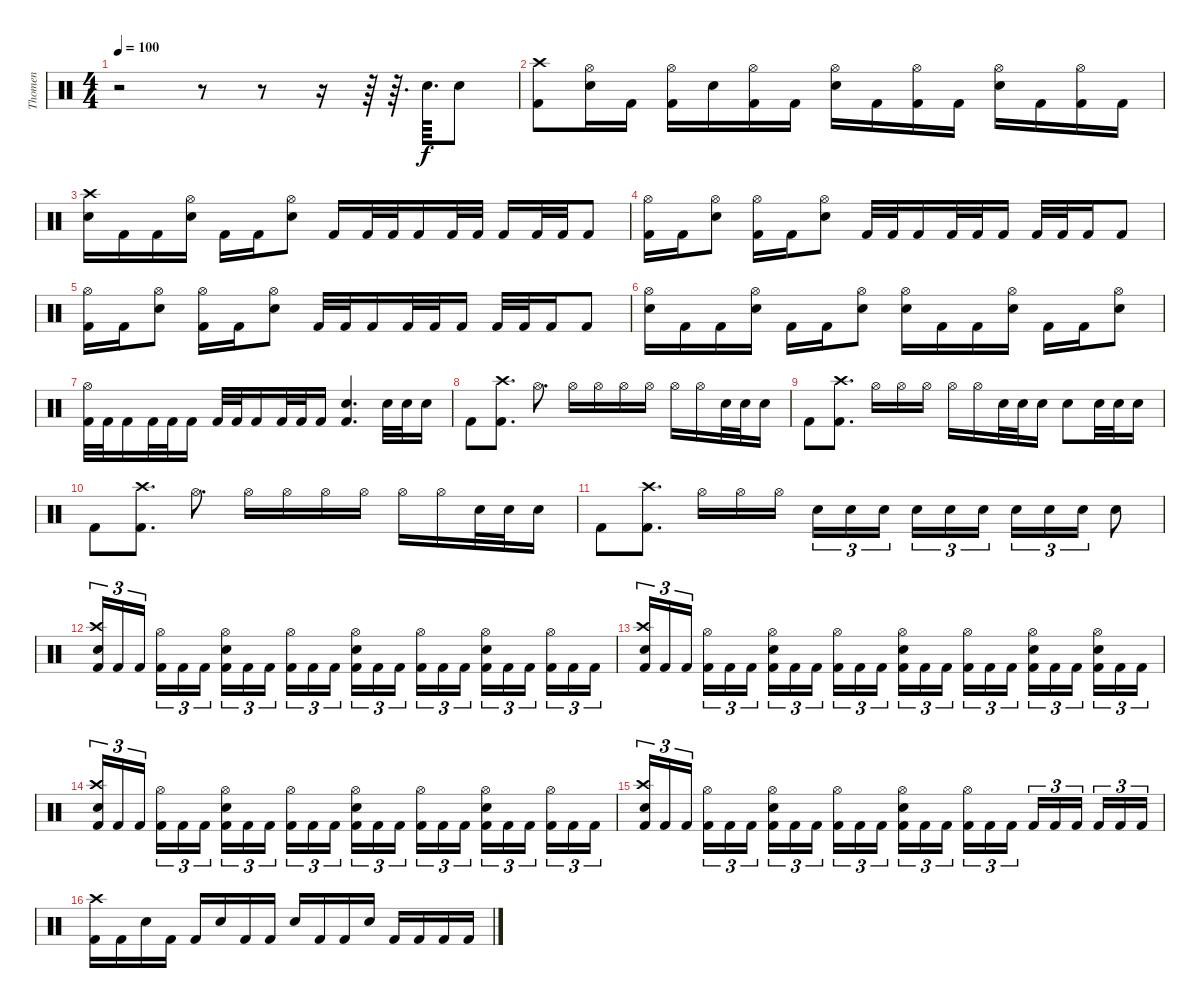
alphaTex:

\track ("Thomen" "Thomen") {instrument percussion}
\staff {score}
\articulation defaults
\ts (4 4)
\tempo 100
\clef neutral
\ks c
r.2{dy f} r.8 r.8 r.16 r.64 r.64{d} "Snare (hit) 2".64{d} "Snare (hit) 2".8 |
("Crash high (hit)" "Kick (hit) 2").8 ("Hi-Hat (open)" "Snare (hit) 2").16 "Kick (hit) 2".16 ("Hi-Hat (open)" "Kick (hit) 2").16 "Snare (hit) 2".16 ("Hi-Hat (open)" "Kick (hit) 2").16 "Kick (hit) 2".16 ("Hi-Hat (open)" "Snare (hit) 2").16 "Kick (hit) 2".16 ("Hi-Hat (open)" "Kick (hit) 2").16 "Kick (hit) 2".16 ("Hi-Hat (open)" "Snare (hit) 2").16 "Kick (hit) 2".16 ("Hi-Hat (open)" "Kick (hit) 2").16 "Kick (hit) 2".16 |
("Crash high (hit)" "Snare (hit) 2").16 "Kick (hit) 2".16 "Kick (hit) 2".16 ("Hi-Hat (open)" "Snare (hit) 2").16 "Kick (hit) 2".16 "Kick (hit) 2".16 ("Hi-Hat (open)" "Snare (hit) 2").8 "Kick (hit) 2".16 "Kick (hit) 2".32 "Kick (hit) 2".32 "Kick (hit) 2".16 "Kick (hit) 2".32 "Kick (hit) 2".32 "Kick (hit) 2".16 "Kick (hit) 2".32 "Kick (hit) 2".32 "Kick (hit) 2".8 |
("Hi-Hat (open)" "Kick (hit) 2").16 "Kick (hit) 2".16 ("Hi-Hat (open)" "Snare (hit) 2").8 ("Hi-Hat (open)" "Kick (hit) 2").16 "Kick (hit) 2".16 ("Hi-Hat (open)" "Snare (hit) 2").8 "Kick (hit) 2".32 "Kick (hit) 2".32 "Kick (hit) 2".16 "Kick (hit) 2".32 "Kick (hit) 2".32 "Kick (hit) 2".16 "Kick (hit) 2".32 "Kick (hit) 2".32 "Kick (hit) 2".16 "Kick (hit) 2".8 |
("Hi-Hat (open)" "Kick (hit) 2").16 "Kick (hit) 2".16 ("Hi-Hat (open)" "Snare (hit) 2").8 ("Hi-Hat (open)" "Kick (hit) 2").16 "Kick (hit) 2".16 ("Hi-Hat (open)" "Snare (hit) 2").8 "Kick (hit) 2".32 "Kick (hit) 2".32 "Kick (hit) 2".16 "Kick (hit) 2".32 "Kick (hit) 2".32 "Kick (hit) 2".16 "Kick (hit) 2".32 "Kick (hit) 2".32 "Kick (hit) 2".16 "Kick (hit) 2".8 |
("Hi-Hat (open)" "Snare (hit) 2").16 "Kick (hit) 2".16 "Kick (hit) 2".16 ("Hi-Hat (open)" "Snare (hit) 2").16 "Kick (hit) 2".16 "Kick (hit) 2".16 ("Hi-Hat (open)" "Snare (hit) 2").8 ("Hi-Hat (open)" "Snare (hit) 2").16 "Kick (hit) 2".16 "Kick (hit) 2".16 ("Hi-Hat (open)" "Snare (hit) 2").16 "Kick (hit) 2".16 "Kick (hit) 2".16 ("Hi-Hat (open)" "Snare (hit) 2").8 |
("Hi-Hat (open)" "Kick (hit) 2").32 "Kick (hit) 2".32 "Kick (hit) 2".16 "Kick (hit) 2".32 "Kick (hit) 2".32 "Kick (hit) 2".16 "Kick (hit) 2".32 "Kick (hit) 2".32 "Kick (hit) 2".16 "Kick (hit) 2".32 "Kick (hit) 2".32 "Kick (hit) 2".16 ("Snare (hit) 2" "Kick (hit) 2").4{d} "Snare (hit) 2".32 "Snare (hit) 2".32 "Snare (hit) 2".16 |
"Kick (hit) 2".8 ("Crash high (hit)" "Kick (hit) 2").8{d} "Hi-Hat (open)".8{d} "Hi-Hat (open)".16 "Hi-Hat (open)".16 "Hi-Hat (open)".16 "Hi-Hat (open)".16 "Hi-Hat (open)".16 "Hi-Hat (open)".16 "Snare (hit) 2".32 "Snare (hit) 2".32 "Snare (hit) 2".16 |
"Kick (hit) 2".8 ("Crash high (hit)" "Kick (hit) 2").8{d} "Hi-Hat (open)".16 "Hi-Hat (open)".16 "Hi-Hat (open)".16 "Hi-Hat (open)".16 "Hi-Hat (open)".16 "Snare (hit) 2".32 "Snare (hit) 2".32 "Snare (hit) 2".16 "Snare (hit) 2".8 "Snare (hit) 2".32 "Snare (hit) 2".32 "Snare (hit) 2".16 |
"Kick (hit) 2".8 ("Crash high (hit)" "Kick (hit) 2").8{d} "Hi-Hat (open)".8{d} "Hi-Hat (open)".16 "Hi-Hat (open)".16 "Hi-Hat (open)".16 "Hi-Hat (open)".16 "Hi-Hat (open)".16 "Hi-Hat (open)".16 "Snare (hit) 2".32 "Snare (hit) 2".32 "Snare (hit) 2".16 |
"Kick (hit) 2".8 ("Crash high (hit)" "Kick (hit) 2").8{d} "Hi-Hat (open)".16 "Hi-Hat (open)".16 "Hi-Hat (open)".16 "Snare (hit) 2".16{tu (3 2)} "Snare (hit) 2".16{tu (3 2)} "Snare (hit) 2".16{tu (3 2) beam splitsecondary} "Snare (hit) 2".16{tu (3 2)} "Snare (hit) 2".16{tu (3 2)} "Snare (hit) 2".16{tu (3 2)} "Snare (hit) 2".16{tu (3 2)} "Snare (hit) 2".16{tu (3 2)} "Snare (hit) 2".16{tu (3 2)} "Snare (hit) 2".8 |
("Crash high (hit)" "Snare (hit) 2" "Kick (hit) 2").16{tu (3 2)} "Kick (hit) 2".16{tu (3 2)} "Kick (hit) 2".16{tu (3 2) beam splitsecondary} ("Hi-Hat (open)" "Kick (hit) 2").16{tu (3 2)} "Kick (hit) 2".16{tu (3 2)} "Kick (hit) 2".16{tu (3 2)} ("Hi-Hat (open)" "Snare (hit) 2" "Kick (hit) 2").16{tu (3 2)} "Kick (hit) 2".16{tu (3 2)} "Kick (hit) 2".16{tu (3 2) beam splitsecondary} ("Hi-Hat (open)" "Kick (hit) 2").16{tu (3 2)} "Kick (hit) 2".16{tu (3 2)} "Kick (hit) 2".16{tu (3 2)} ("Hi-Hat (open)" "Snare (hit) 2" "Kick (hit) 2").16{tu (3 2)} "Kick (hit) 2".16{tu (3 2)} "Kick (hit) 2".16{tu (3 2) beam splitsecondary} ("Hi-Hat (open)" "Kick (hit) 2").16{tu (3 2)} "Kick (hit) 2".16{tu (3 2)} "Kick (hit) 2".16{tu (3 2)} ("Hi-Hat (open)" "Snare (hit) 2" "Kick (hit) 2").16{tu (3 2)} "Kick (hit) 2".16{tu (3 2)} "Kick (hit) 2".16{tu (3 2) beam splitsecondary} ("Hi-Hat (open)" "Kick (hit) 2").16{tu (3 2)} "Kick (hit) 2".16{tu (3 2)} "Kick (hit) 2".16{tu (3 2)} |
("Crash high (hit)" "Snare (hit) 2" "Kick (hit) 2").16{tu (3 2)} "Kick (hit) 2".16{tu (3 2)} "Kick (hit) 2".16{tu (3 2) beam splitsecondary} ("Hi-Hat (open)" "Kick (hit) 2").16{tu (3 2)} "Kick (hit) 2".16{tu (3 2)} "Kick (hit) 2".16{tu (3 2)} ("Hi-Hat (open)" "Snare (hit) 2" "Kick (hit) 2").16{tu (3 2)} "Kick (hit) 2".16{tu (3 2)} "Kick (hit) 2".16{tu (3 2) beam splitsecondary} ("Hi-Hat (open)" "Kick (hit) 2").16{tu (3 2)} "Kick (hit) 2".16{tu (3 2)} "Kick (hit) 2".16{tu (3 2)} ("Hi-Hat (open)" "Snare (hit) 2" "Kick (hit) 2").16{tu (3 2)} "Kick (hit) 2".16{tu (3 2)} "Kick (hit) 2".16{tu (3 2) beam splitsecondary} ("Hi-Hat (open)" "Kick (hit) 2").16{tu (3 2)} "Kick (hit) 2".16{tu (3 2)} "Kick (hit) 2".16{tu (3 2)} ("Hi-Hat (open)" "Snare (hit) 2" "Kick (hit) 2").16{tu (3 2)} "Kick (hit) 2".16{tu (3 2)} "Kick (hit) 2".16{tu (3 2) beam splitsecondary} ("Hi-Hat (open)" "Snare (hit) 2" "Kick (hit) 2").16{tu (3 2)} "Kick (hit) 2".16{tu (3 2)} "Kick (hit) 2".16{tu (3 2)} |
("Crash high (hit)" "Snare (hit) 2" "Kick (hit) 2").16{tu (3 2)} "Kick (hit) 2".16{tu (3 2)} "Kick (hit) 2".16{tu (3 2) beam splitsecondary} ("Hi-Hat (open)" "Kick (hit) 2").16{tu (3 2)} "Kick (hit) 2".16{tu (3 2)} "Kick (hit) 2".16{tu (3 2)} ("Hi-Hat (open)" "Snare (hit) 2" "Kick (hit) 2").16{tu (3 2)} "Kick (hit) 2".16{tu (3 2)} "Kick (hit) 2".16{tu (3 2) beam splitsecondary} ("Hi-Hat (open)" "Kick (hit) 2").16{tu (3 2)} "Kick (hit) 2".16{tu (3 2)} "Kick (hit) 2".16{tu (3 2)} ("Hi-Hat (open)" "Snare (hit) 2" "Kick (hit) 2").16{tu (3 2)} "Kick (hit) 2".16{tu (3 2)} "Kick (hit) 2".16{tu (3 2) beam splitsecondary} ("Hi-Hat (open)" "Kick (hit) 2").16{tu (3 2)} "Kick (hit) 2".16{tu (3 2)} "Kick (hit) 2".16{tu (3 2)} ("Hi-Hat (open)" "Snare (hit) 2" "Kick (hit) 2").16{tu (3 2)} "Kick (hit) 2".16{tu (3 2)} "Kick (hit) 2".16{tu (3 2) beam splitsecondary} ("Hi-Hat (open)" "Kick (hit) 2").16{tu (3 2)} "Kick (hit) 2".16{tu (3 2)} "Kick (hit) 2".16{tu (3 2)} |
("Crash high (hit)" "Snare (hit) 2" "Kick (hit) 2").16{tu (3 2)} "Kick (hit) 2".16{tu (3 2)} "Kick (hit) 2".16{tu (3 2) beam splitsecondary} ("Hi-Hat (open)" "Kick (hit) 2").16{tu (3 2)} "Kick (hit) 2".16{tu (3 2)} "Kick (hit) 2".16{tu (3 2)} ("Hi-Hat (open)" "Snare (hit) 2" "Kick (hit) 2").16{tu (3 2)} "Kick (hit) 2".16{tu (3 2)} "Kick (hit) 2".16{tu (3 2) beam splitsecondary} ("Hi-Hat (open)" "Kick (hit) 2").16{tu (3 2)} "Kick (hit) 2".16{tu (3 2)} "Kick (hit) 2".16{tu (3 2)} ("Hi-Hat (open)" "Snare (hit) 2" "Kick (hit) 2").16{tu (3 2)} "Kick (hit) 2".16{tu (3 2)} "Kick (hit) 2".16{tu (3 2) beam splitsecondary} ("Hi-Hat (open)" "Kick (hit) 2").16{tu (3 2)} "Kick (hit) 2".16{tu (3 2)} "Kick (hit) 2".16{tu (3 2)} "Kick (hit) 2".16{tu (3 2)} "Kick (hit) 2".16{tu (3 2)} "Kick (hit) 2".16{tu (3 2) beam splitsecondary} "Kick (hit) 2".16{tu (3 2)} "Kick (hit) 2".16{tu (3 2)} "Kick (hit) 2".16{tu (3 2)} |
("Crash high (hit)" "Kick (hit) 2").16 "Kick (hit) 2".16 "Snare (hit) 2".16 "Kick (hit) 2".16 "Kick (hit) 2".16 "Snare (hit) 2".16 "Kick (hit) 2".16 "Kick (hit) 2".16 "Snare (hit) 2".16 "Kick (hit) 2".16 "Kick (hit) 2".16 "Snare (hit) 2".16 "Kick (hit) 2".16 "Kick (hit) 2".16 "Kick (hit) 2".16 "Kick (hit) 2".16
